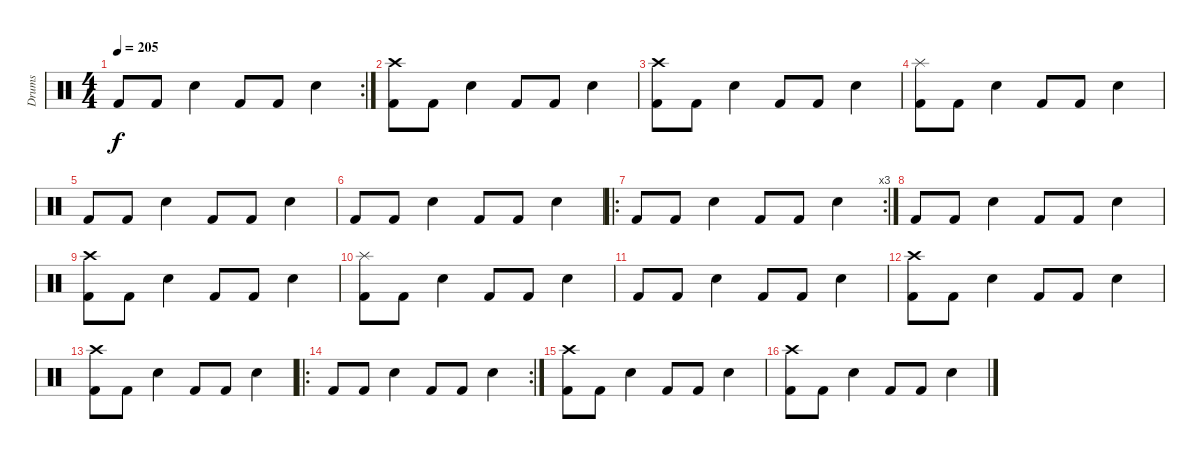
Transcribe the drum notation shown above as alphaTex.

\track ("Drums " "Drums ") {instrument percussion}
\staff {score}
\articulation defaults
\rc 2
\ts (4 4)
\tempo 205
\clef neutral
\ks c "Kick (hit) 2".8{dy f} "Kick (hit) 2".8 "Electric Snare (hit)".4 "Kick (hit) 2".8 "Kick (hit) 2".8 "Electric Snare (hit)".4
|
("Crash high (hit)" "Kick (hit) 2").8 "Kick (hit) 2".8 "Electric Snare (hit)".4 "Kick (hit) 2".8 "Kick (hit) 2".8 "Electric Snare (hit)".4 |
("Crash high (hit)" "Kick (hit) 2").8 "Kick (hit) 2".8 "Electric Snare (hit)".4 "Kick (hit) 2".8 "Kick (hit) 2".8 "Electric Snare (hit)".4 |
("Splash (hit)" "Kick (hit) 2").8 "Kick (hit) 2".8 "Electric Snare (hit)".4 "Kick (hit) 2".8 "Kick (hit) 2".8 "Electric Snare (hit)".4 |
"Kick (hit) 2".8 "Kick (hit) 2".8 "Electric Snare (hit)".4 "Kick (hit) 2".8 "Kick (hit) 2".8 "Electric Snare (hit)".4 |
"Kick (hit) 2".8 "Kick (hit) 2".8 "Electric Snare (hit)".4 "Kick (hit) 2".8 "Kick (hit) 2".8 "Electric Snare (hit)".4 |
\ro
\rc 3 "Kick (hit) 2".8 "Kick (hit) 2".8 "Electric Snare (hit)".4 "Kick (hit) 2".8 "Kick (hit) 2".8 "Electric Snare (hit)".4
|
"Kick (hit) 2".8 "Kick (hit) 2".8 "Electric Snare (hit)".4 "Kick (hit) 2".8 "Kick (hit) 2".8 "Electric Snare (hit)".4 |
("Crash high (hit)" "Kick (hit) 2").8 "Kick (hit) 2".8 "Electric Snare (hit)".4 "Kick (hit) 2".8 "Kick (hit) 2".8 "Electric Snare (hit)".4 |
("Splash (hit)" "Kick (hit) 2").8 "Kick (hit) 2".8 "Electric Snare (hit)".4 "Kick (hit) 2".8 "Kick (hit) 2".8 "Electric Snare (hit)".4 |
"Kick (hit) 2".8 "Kick (hit) 2".8 "Electric Snare (hit)".4 "Kick (hit) 2".8 "Kick (hit) 2".8 "Electric Snare (hit)".4 |
("Crash high (hit)" "Kick (hit) 2").8 "Kick (hit) 2".8 "Electric Snare (hit)".4 "Kick (hit) 2".8 "Kick (hit) 2".8 "Electric Snare (hit)".4 |
("Crash high (hit)" "Kick (hit) 2").8 "Kick (hit) 2".8 "Electric Snare (hit)".4 "Kick (hit) 2".8 "Kick (hit) 2".8 "Electric Snare (hit)".4 |
\ro
\rc 2 "Kick (hit) 2".8 "Kick (hit) 2".8 "Electric Snare (hit)".4 "Kick (hit) 2".8 "Kick (hit) 2".8 "Electric Snare (hit)".4
|
("Crash high (hit)" "Kick (hit) 2").8 "Kick (hit) 2".8 "Electric Snare (hit)".4 "Kick (hit) 2".8 "Kick (hit) 2".8 "Electric Snare (hit)".4 |
("Crash high (hit)" "Kick (hit) 2").8 "Kick (hit) 2".8 "Electric Snare (hit)".4 "Kick (hit) 2".8 "Kick (hit) 2".8 "Electric Snare (hit)".4
